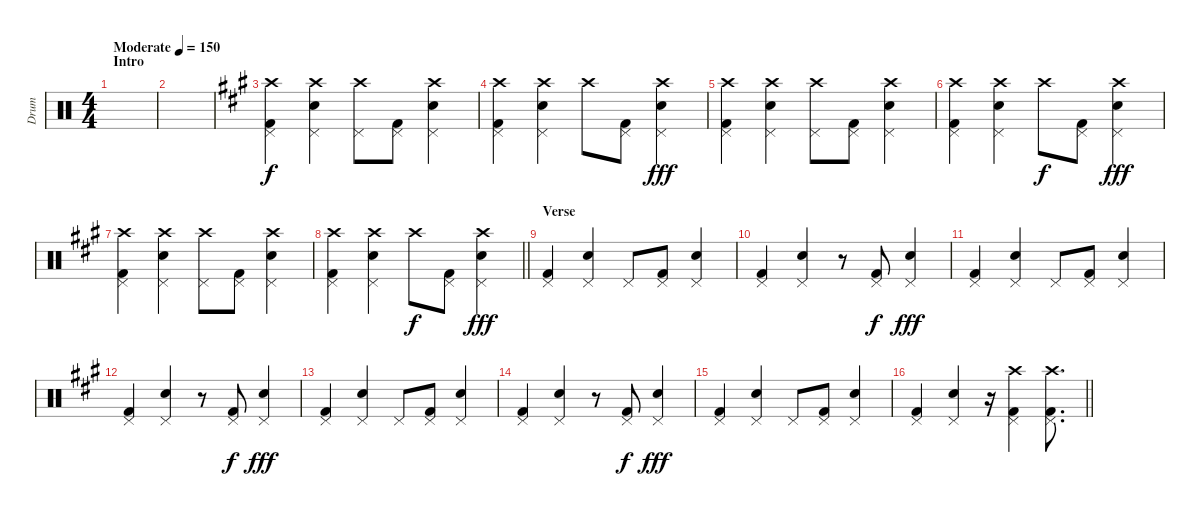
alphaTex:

\track ("Drum" "Drum") {instrument percussion}
\staff {score}
\articulation defaults
\ts (4 4)
\section ("" "Intro")
\tempo (150 "Moderate")
\clef neutral
\ks c
|
|
\ks a
("Crash high (hit)" "Pedal Hi-Hat (hit)" "Kick (hit) 2").4 ("Crash high (hit)" "Pedal Hi-Hat (hit)" "Snare (hit) 2").4 ("Crash high (hit)" "Pedal Hi-Hat (hit)").8 ("Pedal Hi-Hat (hit)" "Kick (hit) 2").8 ("Crash high (hit)" "Pedal Hi-Hat (hit)" "Snare (hit) 2").4 |
("Crash high (hit)" "Pedal Hi-Hat (hit)" "Kick (hit) 2").4 ("Crash high (hit)" "Pedal Hi-Hat (hit)" "Snare (hit) 2").4 "Crash high (hit)".8{dy f} ("Pedal Hi-Hat (hit)" "Kick (hit) 2").8 ("Crash high (hit)" "Pedal Hi-Hat (hit)" "Snare (hit) 2").4{dy fff} |
("Crash high (hit)" "Pedal Hi-Hat (hit)" "Kick (hit) 2").4 ("Crash high (hit)" "Pedal Hi-Hat (hit)" "Snare (hit) 2").4 ("Crash high (hit)" "Pedal Hi-Hat (hit)").8 ("Pedal Hi-Hat (hit)" "Kick (hit) 2").8 ("Crash high (hit)" "Pedal Hi-Hat (hit)" "Snare (hit) 2").4 |
("Crash high (hit)" "Pedal Hi-Hat (hit)" "Kick (hit) 2").4 ("Crash high (hit)" "Pedal Hi-Hat (hit)" "Snare (hit) 2").4 "Crash high (hit)".8{dy f} ("Pedal Hi-Hat (hit)" "Kick (hit) 2").8 ("Crash high (hit)" "Pedal Hi-Hat (hit)" "Snare (hit) 2").4{dy fff} |
("Crash high (hit)" "Pedal Hi-Hat (hit)" "Kick (hit) 2").4 ("Crash high (hit)" "Pedal Hi-Hat (hit)" "Snare (hit) 2").4 ("Crash high (hit)" "Pedal Hi-Hat (hit)").8 ("Pedal Hi-Hat (hit)" "Kick (hit) 2").8 ("Crash high (hit)" "Pedal Hi-Hat (hit)" "Snare (hit) 2").4 |
\barLineRight lightlight
("Crash high (hit)" "Pedal Hi-Hat (hit)" "Kick (hit) 2").4 ("Crash high (hit)" "Pedal Hi-Hat (hit)" "Snare (hit) 2").4 "Crash high (hit)".8{dy f} ("Pedal Hi-Hat (hit)" "Kick (hit) 2").8 ("Crash high (hit)" "Pedal Hi-Hat (hit)" "Snare (hit) 2").4{dy fff} |
\section ("" "Verse")
("Pedal Hi-Hat (hit)" "Kick (hit) 2").4 ("Pedal Hi-Hat (hit)" "Snare (hit) 2").4 "Pedal Hi-Hat (hit)".8 ("Pedal Hi-Hat (hit)" "Kick (hit) 2").8 ("Pedal Hi-Hat (hit)" "Snare (hit) 2").4 |
("Pedal Hi-Hat (hit)" "Kick (hit) 2").4 ("Pedal Hi-Hat (hit)" "Snare (hit) 2").4 r.8 ("Pedal Hi-Hat (hit)" "Kick (hit) 2").8{dy f} ("Pedal Hi-Hat (hit)" "Snare (hit) 2").4{dy fff} |
("Pedal Hi-Hat (hit)" "Kick (hit) 2").4 ("Pedal Hi-Hat (hit)" "Snare (hit) 2").4 "Pedal Hi-Hat (hit)".8 ("Pedal Hi-Hat (hit)" "Kick (hit) 2").8 ("Pedal Hi-Hat (hit)" "Snare (hit) 2").4 |
("Pedal Hi-Hat (hit)" "Kick (hit) 2").4 ("Pedal Hi-Hat (hit)" "Snare (hit) 2").4 r.8 ("Pedal Hi-Hat (hit)" "Kick (hit) 2").8{dy f} ("Pedal Hi-Hat (hit)" "Snare (hit) 2").4{dy fff} |
("Pedal Hi-Hat (hit)" "Kick (hit) 2").4 ("Pedal Hi-Hat (hit)" "Snare (hit) 2").4 "Pedal Hi-Hat (hit)".8 ("Pedal Hi-Hat (hit)" "Kick (hit) 2").8 ("Pedal Hi-Hat (hit)" "Snare (hit) 2").4 |
("Pedal Hi-Hat (hit)" "Kick (hit) 2").4 ("Pedal Hi-Hat (hit)" "Snare (hit) 2").4 r.8 ("Pedal Hi-Hat (hit)" "Kick (hit) 2").8{dy f} ("Pedal Hi-Hat (hit)" "Snare (hit) 2").4{dy fff} |
("Pedal Hi-Hat (hit)" "Kick (hit) 2").4 ("Pedal Hi-Hat (hit)" "Snare (hit) 2").4 "Pedal Hi-Hat (hit)".8 ("Pedal Hi-Hat (hit)" "Kick (hit) 2").8 ("Pedal Hi-Hat (hit)" "Snare (hit) 2").4 |
\barLineRight lightlight
("Pedal Hi-Hat (hit)" "Kick (hit) 2").4 ("Pedal Hi-Hat (hit)" "Snare (hit) 2").4 r.16 ("Crash high (hit)" "Pedal Hi-Hat (hit)" "Kick (hit) 2").4 ("Crash high (hit)" "Pedal Hi-Hat (hit)" "Kick (hit) 2").8{d}
